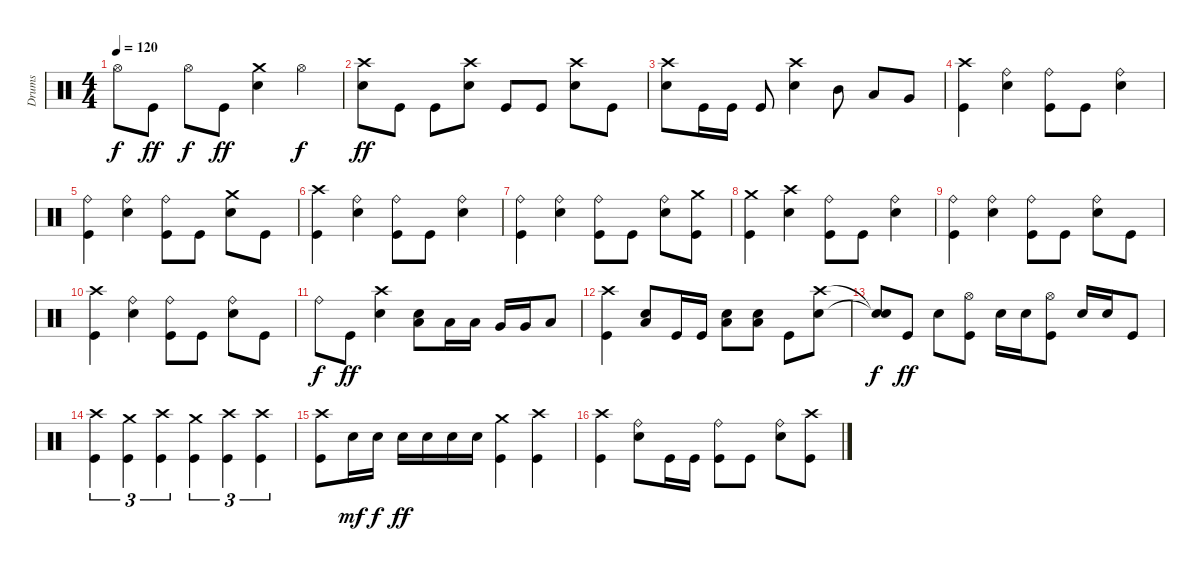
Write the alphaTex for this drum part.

\track ("Drums" "Drums") {instrument percussion}
\staff {score}
\articulation defaults
\ts (4 4)
\tempo 120
\clef neutral
\ks c "Hi-Hat (open)".8{dy f} "Kick (hit)".8{dy ff} "Hi-Hat (open)".8{dy f} "Kick (hit)".8{dy ff}
("Crash medium (hit)" "Electric Snare (hit)").4 "Hi-Hat (open)".4{dy f} |
("Crash high (hit)" "Electric Snare (hit)").8{dy ff} "Kick (hit)".8 "Kick (hit)".8 ("Crash high (hit)" "Electric Snare (hit)").8 "Kick (hit)".8 "Kick (hit)".8 ("Crash high (hit)" "Electric Snare (hit)").8 "Kick (hit)".8 |
("Crash high (hit)" "Electric Snare (hit)").8 "Kick (hit)".16 "Kick (hit)".16 "Kick (hit)".8 ("Crash high (hit)" "Electric Snare (hit)").4 "Mid Tom (hit)".8 "Low Tom (hit)".8 "Very Low Tom (hit)".8 |
("Crash high (hit)" "Kick (hit)").4 ("Ride (bell)" "Electric Snare (hit)").4 ("Ride (bell)" "Kick (hit)").8 "Kick (hit)".8 ("Ride (bell)" "Electric Snare (hit)").4 |
("Ride (bell)" "Kick (hit)").4 ("Ride (bell)" "Electric Snare (hit)").4 ("Ride (bell)" "Kick (hit)").8 "Kick (hit)".8 ("Crash medium (hit)" "Electric Snare (hit)").8 "Kick (hit)".8 |
("Crash high (hit)" "Kick (hit)").4 ("Ride (bell)" "Electric Snare (hit)").4 ("Ride (bell)" "Kick (hit)").8 "Kick (hit)".8 ("Ride (bell)" "Electric Snare (hit)").4 |
("Ride (bell)" "Kick (hit)").4 ("Ride (bell)" "Electric Snare (hit)").4 ("Ride (bell)" "Kick (hit)").8 "Kick (hit)".8 ("Ride (bell)" "Electric Snare (hit)").8 ("Crash medium (hit)" "Kick (hit)").8 |
("Crash medium (hit)" "Kick (hit)").4 ("Crash high (hit)" "Electric Snare (hit)").4 ("Ride (bell)" "Kick (hit)").8 "Kick (hit)".8 ("Ride (bell)" "Electric Snare (hit)").4 |
("Ride (bell)" "Kick (hit)").4 ("Ride (bell)" "Electric Snare (hit)").4 ("Ride (bell)" "Kick (hit)").8 "Kick (hit)".8 ("Ride (bell)" "Electric Snare (hit)").8 "Kick (hit)".8 |
("Crash high (hit)" "Kick (hit)").4 ("Ride (bell)" "Electric Snare (hit)").4 ("Ride (bell)" "Kick (hit)").8 "Kick (hit)".8 ("Ride (bell)" "Electric Snare (hit)").8 "Kick (hit)".8 |
"Ride (bell)".8{dy f} "Kick (hit)".8{dy ff} ("Crash high (hit)" "Electric Snare (hit)").4 ("Low Floor Tom (hit)" "Electric Snare (hit)").8 "Low Tom (hit)".16 "Low Tom (hit)".16 "Very Low Tom (hit)".16 "Very Low Tom (hit)".16 "Low Floor Tom (hit)".8 |
("Crash high (hit)" "Kick (hit)").4 ("Low Floor Tom (hit)" "Electric Snare (hit)").8 "Kick (hit)".16 "Kick (hit)".16 ("Low Floor Tom (hit)" "Electric Snare (hit)").8 ("Low Floor Tom (hit)" "Electric Snare (hit)").8 "Kick (hit)".8 ("Crash high (hit)" "Electric Snare (hit)").8 |
("Snare (hit)"{t} "Snare (hit)"{t}).8{dy f} "Kick (hit)".8{dy ff} "Electric Snare (hit)".8 ("Hi-Hat (open)" "Kick (hit)").8 "Electric Snare (hit)".16 "Electric Snare (hit)".16 ("Hi-Hat (open)" "Kick (hit)").8 "Electric Snare (hit)".16 "Electric Snare (hit)".16 "Kick (hit)".8 |
("Crash high (hit)" "Kick (hit)").4{tu (3 2)} ("Crash medium (hit)" "Kick (hit)").4{tu (3 2)} ("Crash high (hit)" "Kick (hit)").4{tu (3 2)} ("Crash medium (hit)" "Kick (hit)").4{tu (3 2)} ("Crash high (hit)" "Kick (hit)").4{tu (3 2)} ("Crash high (hit)" "Kick (hit)").4{tu (3 2)} |
("Crash high (hit)" "Kick (hit)").8 "Electric Snare (hit)".16{dy mf} "Electric Snare (hit)".16{dy f} "Electric Snare (hit)".16{dy ff} "Electric Snare (hit)".16 "Electric Snare (hit)".16 "Electric Snare (hit)".16 ("Crash medium (hit)" "Kick (hit)").4 ("Crash high (hit)" "Kick (hit)").4 |
("Crash high (hit)" "Kick (hit)").4 ("Ride (bell)" "Electric Snare (hit)").8 "Kick (hit)".16 "Kick (hit)".16 ("Ride (bell)" "Kick (hit)").8 "Kick (hit)".8 ("Ride (bell)" "Electric Snare (hit)").8 ("Crash high (hit)" "Kick (hit)").8
